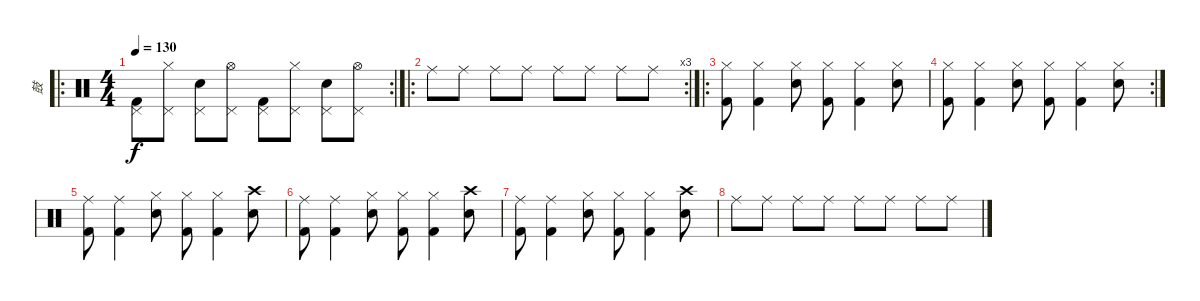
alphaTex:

\track ("鼓" "鼓") {instrument percussion}
\staff {score}
\articulation defaults
\ro
\rc 2
\ts (4 4)
\tempo 130
\clef neutral
\ks c
("Pedal Hi-Hat (hit)" "Kick (hit) 2").8{dy f} ("Hi-Hat (closed)" "Pedal Hi-Hat (hit)").8 ("Pedal Hi-Hat (hit)" "Snare (hit) 2").8 ("Pedal Hi-Hat (hit)" "Hi-Hat (open)").8 ("Pedal Hi-Hat (hit)" "Kick (hit) 2").8 ("Hi-Hat (closed)" "Pedal Hi-Hat (hit)").8 ("Pedal Hi-Hat (hit)" "Snare (hit) 2").8 ("Pedal Hi-Hat (hit)" "Hi-Hat (open)").8 |
\ro
\rc 3 "Ride (middle)".8 "Ride (middle)".8 "Ride (middle)".8 "Ride (middle)".8 "Ride (middle)".8 "Ride (middle)".8 "Ride (middle)".8 "Ride (middle)".8
|
\ro
("Kick (hit) 2" "Hi-Hat (closed)").8 ("Kick (hit) 2" "Hi-Hat (closed)").4 ("Snare (hit) 2" "Hi-Hat (closed)").8 ("Kick (hit) 2" "Hi-Hat (closed)").8 ("Kick (hit) 2" "Hi-Hat (closed)").4 ("Snare (hit) 2" "Hi-Hat (closed)").8 |
\rc 2
("Kick (hit) 2" "Hi-Hat (closed)").8 ("Kick (hit) 2" "Hi-Hat (closed)").4 ("Snare (hit) 2" "Hi-Hat (closed)").8 ("Kick (hit) 2" "Hi-Hat (closed)").8 ("Kick (hit) 2" "Hi-Hat (closed)").4 ("Snare (hit) 2" "Hi-Hat (closed)").8 |
("Kick (hit) 2" "Ride (middle)").8 ("Kick (hit) 2" "Ride (middle)").4 ("Snare (hit) 2" "Hi-Hat (closed)").8 ("Kick (hit) 2" "Hi-Hat (closed)").8 ("Kick (hit) 2" "Hi-Hat (closed)").4 ("Snare (hit) 2" "Crash high (hit)").8 |
("Kick (hit) 2" "Ride (middle)").8 ("Kick (hit) 2" "Ride (middle)").4 ("Snare (hit) 2" "Hi-Hat (closed)").8 ("Kick (hit) 2" "Hi-Hat (closed)").8 ("Kick (hit) 2" "Hi-Hat (closed)").4 ("Snare (hit) 2" "Crash high (hit)").8 |
("Kick (hit) 2" "Ride (middle)").8 ("Kick (hit) 2" "Ride (middle)").4 ("Snare (hit) 2" "Hi-Hat (closed)").8 ("Kick (hit) 2" "Hi-Hat (closed)").8 ("Kick (hit) 2" "Hi-Hat (closed)").4 ("Snare (hit) 2" "Crash high (hit)").8 |
"Ride (middle)".8 "Ride (middle)".8 "Ride (middle)".8 "Ride (middle)".8 "Ride (middle)".8 "Ride (middle)".8 "Ride (middle)".8 "Ride (middle)".8
